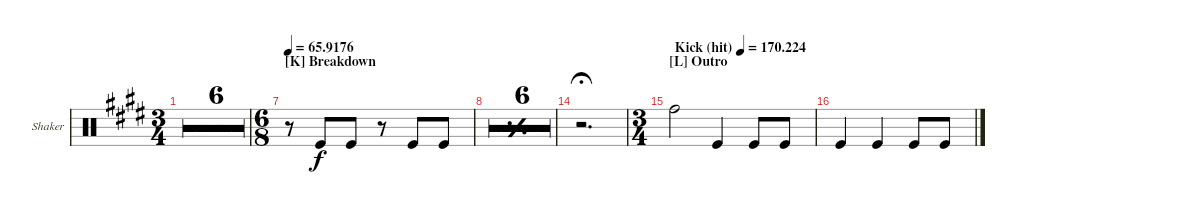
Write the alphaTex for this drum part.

\defaultSystemsLayout 4
\bracketExtendMode groupsimilarinstruments
\firstSystemTrackNameOrientation horizontal
\otherSystemsTrackNameOrientation horizontal
\track ("Shaker" "Shaker") {multiBarRest instrument percussion}
\staff {score}
\articulation defaults
\ts (3 4)
\tempo
165.176
\accidentals auto
\clef neutral
\ottava regular
\simile none
\ks e
r.2{d dy f} |
r.2{d} |
r.2{d} |
r.2{d} |
r.2{d} |
r.2{d} |
\ts (6 8)
\section ("K" "Breakdown")
\tempo
65.9176 r.8 "Kick (hit)".8 "Kick (hit)".8 r.8 "Kick (hit)".8 "Kick (hit)".8 |
\simile simple
|
|
|
|
|
|
\simile none
r.2{d fermata (medium 0.5)} |
\ts (3 4)
\section ("L" "Outro")
\tempo
170.224 "Kick (hit)".4 "Kick (hit)".4 "Kick (hit)".8 "Kick (hit)".8 |
"Kick (hit)".4 "Kick (hit)".4 "Kick (hit)".8 "Kick (hit)".8
